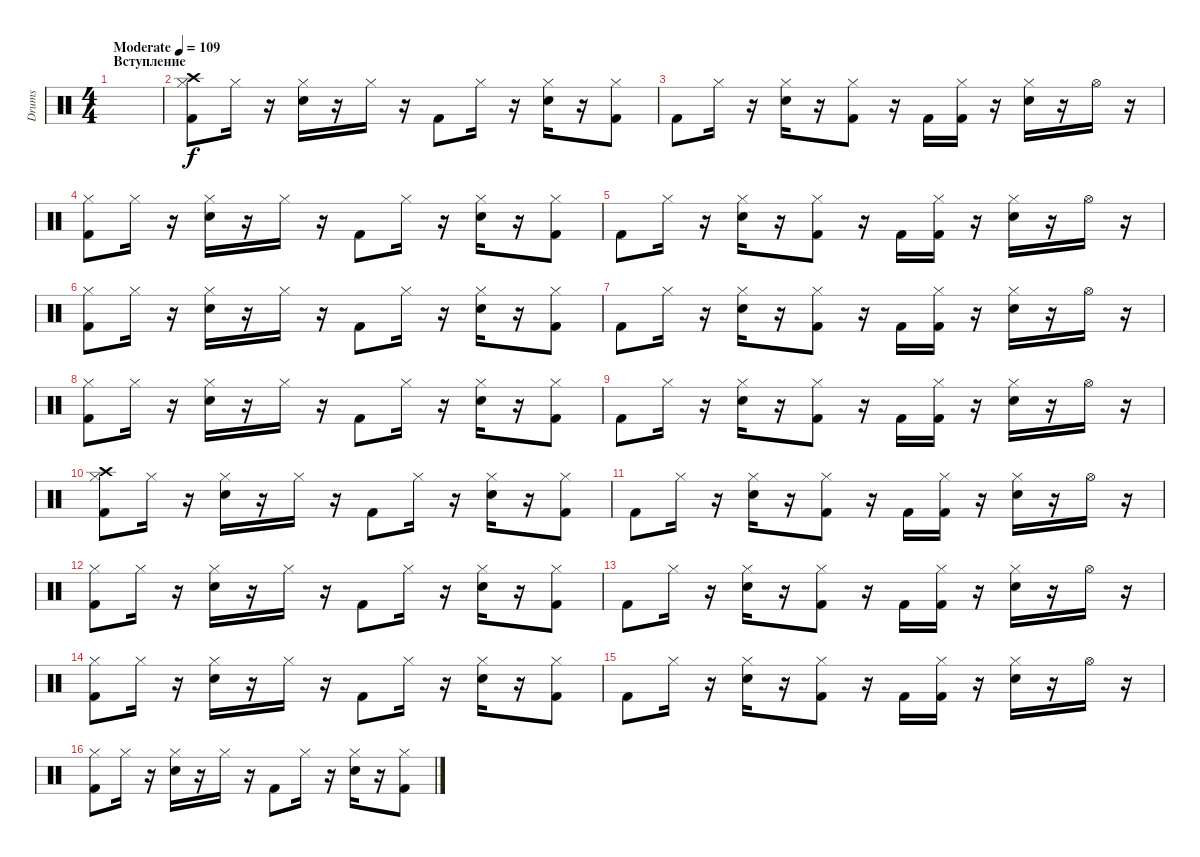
\track ("Drums" "Drums") {instrument percussion}
\staff {score}
\articulation defaults
\ts (4 4)
\section ("" "Вступление")
\tempo (109 "Moderate")
\clef neutral
\ks c
|
("Crash high (hit)" "Hi-Hat (closed)" "Kick (hit) 2").8 "Hi-Hat (closed)".16 r.16 ("Hi-Hat (closed)" "Snare (hit) 2").16 r.16 "Hi-Hat (closed)".16 r.16 "Kick (hit) 2".8 "Hi-Hat (closed)".16 r.16 ("Hi-Hat (closed)" "Snare (hit) 2").16 r.16 ("Hi-Hat (closed)" "Kick (hit) 2").8 |
"Kick (hit) 2".8 "Hi-Hat (closed)".16 r.16 ("Hi-Hat (closed)" "Snare (hit) 2").16 r.16 ("Kick (hit) 2" "Hi-Hat (closed)").8 r.16 "Kick (hit) 2".16 ("Kick (hit) 2" "Hi-Hat (closed)").16 r.16 ("Hi-Hat (closed)" "Snare (hit) 2").16 r.16 "Hi-Hat (open)".16 r.16 |
("Hi-Hat (closed)" "Kick (hit) 2").8 "Hi-Hat (closed)".16 r.16 ("Snare (hit) 2" "Hi-Hat (closed)").16 r.16 "Hi-Hat (closed)".16 r.16 "Kick (hit) 2".8 "Hi-Hat (closed)".16 r.16 ("Hi-Hat (closed)" "Snare (hit) 2").16 r.16 ("Kick (hit) 2" "Hi-Hat (closed)").8 |
"Kick (hit) 2".8 "Hi-Hat (closed)".16 r.16 ("Snare (hit) 2" "Hi-Hat (closed)").16 r.16 ("Hi-Hat (closed)" "Kick (hit) 2").8 r.16 "Kick (hit) 2".16 ("Hi-Hat (closed)" "Kick (hit) 2").16 r.16 ("Hi-Hat (closed)" "Snare (hit) 2").16 r.16 "Hi-Hat (open)".16 r.16 |
("Kick (hit) 2" "Hi-Hat (closed)").8 "Hi-Hat (closed)".16 r.16 ("Hi-Hat (closed)" "Snare (hit) 2").16 r.16 "Hi-Hat (closed)".16 r.16 "Kick (hit) 2".8 "Hi-Hat (closed)".16 r.16 ("Hi-Hat (closed)" "Snare (hit) 2").16 r.16 ("Kick (hit) 2" "Hi-Hat (closed)").8 |
"Kick (hit) 2".8 "Hi-Hat (closed)".16 r.16 ("Hi-Hat (closed)" "Snare (hit) 2").16 r.16 ("Kick (hit) 2" "Hi-Hat (closed)").8 r.16 "Kick (hit) 2".16 ("Hi-Hat (closed)" "Kick (hit) 2").16 r.16 ("Hi-Hat (closed)" "Snare (hit) 2").16 r.16 "Hi-Hat (open)".16 r.16 |
("Kick (hit) 2" "Hi-Hat (closed)").8 "Hi-Hat (closed)".16 r.16 ("Hi-Hat (closed)" "Snare (hit) 2").16 r.16 "Hi-Hat (closed)".16 r.16 "Kick (hit) 2".8 "Hi-Hat (closed)".16 r.16 ("Hi-Hat (closed)" "Snare (hit) 2").16 r.16 ("Kick (hit) 2" "Hi-Hat (closed)").8 |
"Kick (hit) 2".8 "Hi-Hat (closed)".16 r.16 ("Hi-Hat (closed)" "Snare (hit) 2").16 r.16 ("Kick (hit) 2" "Hi-Hat (closed)").8 r.16 "Kick (hit) 2".16 ("Hi-Hat (closed)" "Kick (hit) 2").16 r.16 ("Hi-Hat (closed)" "Snare (hit) 2").16 r.16 "Hi-Hat (open)".16 r.16 |
("Kick (hit) 2" "Hi-Hat (closed)" "Crash high (hit)").8 "Hi-Hat (closed)".16 r.16 ("Snare (hit) 2" "Hi-Hat (closed)").16 r.16 "Hi-Hat (closed)".16 r.16 "Kick (hit) 2".8 "Hi-Hat (closed)".16 r.16 ("Snare (hit) 2" "Hi-Hat (closed)").16 r.16 ("Hi-Hat (closed)" "Kick (hit) 2").8 |
"Kick (hit) 2".8 "Hi-Hat (closed)".16 r.16 ("Snare (hit) 2" "Hi-Hat (closed)").16 r.16 ("Kick (hit) 2" "Hi-Hat (closed)").8 r.16 "Kick (hit) 2".16 ("Hi-Hat (closed)" "Kick (hit) 2").16 r.16 ("Snare (hit) 2" "Hi-Hat (closed)").16 r.16 "Hi-Hat (open)".16 r.16 |
("Hi-Hat (closed)" "Kick (hit) 2").8 "Hi-Hat (closed)".16 r.16 ("Hi-Hat (closed)" "Snare (hit) 2").16 r.16 "Hi-Hat (closed)".16 r.16 "Kick (hit) 2".8 "Hi-Hat (closed)".16 r.16 ("Snare (hit) 2" "Hi-Hat (closed)").16 r.16 ("Kick (hit) 2" "Hi-Hat (closed)").8 |
"Kick (hit) 2".8 "Hi-Hat (closed)".16 r.16 ("Hi-Hat (closed)" "Snare (hit) 2").16 r.16 ("Hi-Hat (closed)" "Kick (hit) 2").8 r.16 "Kick (hit) 2".16 ("Kick (hit) 2" "Hi-Hat (closed)").16 r.16 ("Snare (hit) 2" "Hi-Hat (closed)").16 r.16 "Hi-Hat (open)".16 r.16 |
("Kick (hit) 2" "Hi-Hat (closed)").8 "Hi-Hat (closed)".16 r.16 ("Snare (hit) 2" "Hi-Hat (closed)").16 r.16 "Hi-Hat (closed)".16 r.16 "Kick (hit) 2".8 "Hi-Hat (closed)".16 r.16 ("Snare (hit) 2" "Hi-Hat (closed)").16 r.16 ("Kick (hit) 2" "Hi-Hat (closed)").8 |
"Kick (hit) 2".8 "Hi-Hat (closed)".16 r.16 ("Snare (hit) 2" "Hi-Hat (closed)").16 r.16 ("Kick (hit) 2" "Hi-Hat (closed)").8 r.16 "Kick (hit) 2".16 ("Kick (hit) 2" "Hi-Hat (closed)").16 r.16 ("Snare (hit) 2" "Hi-Hat (closed)").16 r.16 "Hi-Hat (open)".16 r.16 |
("Kick (hit) 2" "Hi-Hat (closed)").8 "Hi-Hat (closed)".16 r.16 ("Snare (hit) 2" "Hi-Hat (closed)").16 r.16 "Hi-Hat (closed)".16 r.16 "Kick (hit) 2".8 "Hi-Hat (closed)".16 r.16 ("Snare (hit) 2" "Hi-Hat (closed)").16 r.16 ("Kick (hit) 2" "Hi-Hat (closed)").8
